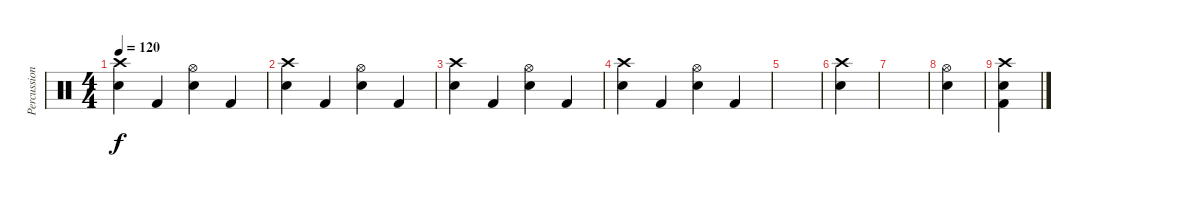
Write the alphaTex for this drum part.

\track ("Percussion" "Percussion") {instrument percussion}
\staff {score}
\articulation defaults
\ts (4 4)
\tempo 120
\clef neutral
\ks c
("Crash high (hit)" "Electric Snare (hit)").4{dy f} "Kick (hit) 2".4 ("Hi-Hat (open)" "Electric Snare (hit)").4 "Kick (hit) 2".4 |
("Crash high (hit)" "Electric Snare (hit)").4 "Kick (hit) 2".4 ("Hi-Hat (open)" "Electric Snare (hit)").4 "Kick (hit) 2".4 |
("Crash high (hit)" "Electric Snare (hit)").4 "Kick (hit) 2".4 ("Hi-Hat (open)" "Electric Snare (hit)").4 "Kick (hit) 2".4 |
("Crash high (hit)" "Electric Snare (hit)").4 "Kick (hit) 2".4 ("Hi-Hat (open)" "Electric Snare (hit)").4 "Kick (hit) 2".4 |
|
("Electric Snare (hit)" "Crash high (hit)").4 |
|
("Hi-Hat (open)" "Electric Snare (hit)").4 |
("Electric Snare (hit)" "Crash high (hit)" "Kick (hit) 2").4
